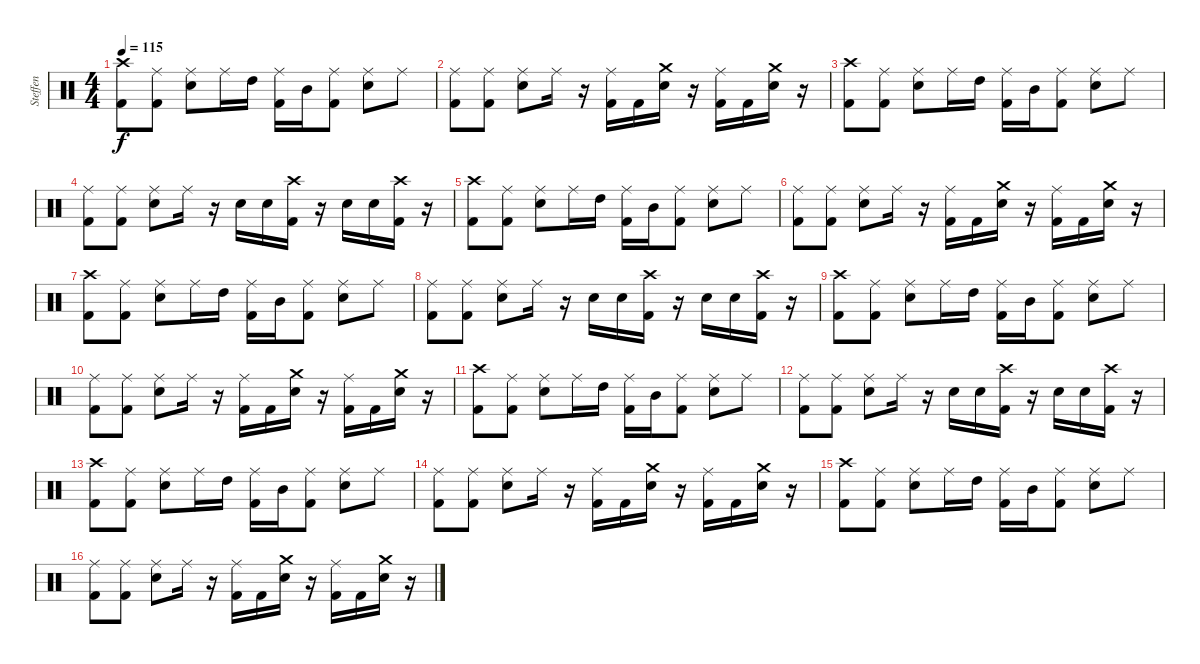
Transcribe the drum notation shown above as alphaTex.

\track ("Steffen" "Steffen") {instrument percussion}
\staff {score}
\articulation defaults
\ts (4 4)
\tempo 115
\clef neutral
\ks c
("Crash high (hit)" "Kick (hit) 2").8{dy f} ("Ride (middle)" "Kick (hit) 2").8 ("Ride (middle)" "Snare (hit) 2").8 "Ride (middle)".16 "High Tom (hit)".16 ("Ride (middle)" "Kick (hit) 2").16 "Mid Tom (hit)".16 ("Ride (middle)" "Kick (hit) 2").8 ("Ride (middle)" "Snare (hit) 2").8 "Ride (middle)".8 |
("Ride (middle)" "Kick (hit) 2").8 ("Ride (middle)" "Kick (hit) 2").8 ("Ride (middle)" "Snare (hit) 2").8 "Ride (middle)".16 r.16 ("Ride (middle)" "Kick (hit) 2").16 "Kick (hit) 2".16 ("Crash medium (hit)" "Snare (hit) 2").16 r.16 ("Ride (middle)" "Kick (hit) 2").16 "Kick (hit) 2".16 ("Crash medium (hit)" "Snare (hit) 2").16 r.16 |
("Crash high (hit)" "Kick (hit) 2").8 ("Ride (middle)" "Kick (hit) 2").8 ("Ride (middle)" "Snare (hit) 2").8 "Ride (middle)".16 "High Tom (hit)".16 ("Ride (middle)" "Kick (hit) 2").16 "Mid Tom (hit)".16 ("Ride (middle)" "Kick (hit) 2").8 ("Ride (middle)" "Snare (hit) 2").8 "Ride (middle)".8 |
("Ride (middle)" "Kick (hit) 2").8 ("Ride (middle)" "Kick (hit) 2").8 ("Ride (middle)" "Snare (hit) 2").8 "Ride (middle)".16 r.16 "Snare (hit) 2".16 "Snare (hit) 2".16 ("Crash high (hit)" "Kick (hit) 2").16 r.16 "Snare (hit) 2".16 "Snare (hit) 2".16 ("Crash high (hit)" "Kick (hit) 2").16 r.16 |
("Crash high (hit)" "Kick (hit) 2").8 ("Ride (middle)" "Kick (hit) 2").8 ("Ride (middle)" "Snare (hit) 2").8 "Ride (middle)".16 "High Tom (hit)".16 ("Ride (middle)" "Kick (hit) 2").16 "Mid Tom (hit)".16 ("Ride (middle)" "Kick (hit) 2").8 ("Ride (middle)" "Snare (hit) 2").8 "Ride (middle)".8 |
("Ride (middle)" "Kick (hit) 2").8 ("Ride (middle)" "Kick (hit) 2").8 ("Ride (middle)" "Snare (hit) 2").8 "Ride (middle)".16 r.16 ("Ride (middle)" "Kick (hit) 2").16 "Kick (hit) 2".16 ("Crash medium (hit)" "Snare (hit) 2").16 r.16 ("Ride (middle)" "Kick (hit) 2").16 "Kick (hit) 2".16 ("Crash medium (hit)" "Snare (hit) 2").16 r.16 |
("Crash high (hit)" "Kick (hit) 2").8 ("Ride (middle)" "Kick (hit) 2").8 ("Ride (middle)" "Snare (hit) 2").8 "Ride (middle)".16 "High Tom (hit)".16 ("Ride (middle)" "Kick (hit) 2").16 "Mid Tom (hit)".16 ("Ride (middle)" "Kick (hit) 2").8 ("Ride (middle)" "Snare (hit) 2").8 "Ride (middle)".8 |
("Ride (middle)" "Kick (hit) 2").8 ("Ride (middle)" "Kick (hit) 2").8 ("Ride (middle)" "Snare (hit) 2").8 "Ride (middle)".16 r.16 "Snare (hit) 2".16 "Snare (hit) 2".16 ("Crash high (hit)" "Kick (hit) 2").16 r.16 "Snare (hit) 2".16 "Snare (hit) 2".16 ("Crash high (hit)" "Kick (hit) 2").16 r.16 |
("Crash high (hit)" "Kick (hit) 2").8 ("Ride (middle)" "Kick (hit) 2").8 ("Ride (middle)" "Snare (hit) 2").8 "Ride (middle)".16 "High Tom (hit)".16 ("Ride (middle)" "Kick (hit) 2").16 "Mid Tom (hit)".16 ("Ride (middle)" "Kick (hit) 2").8 ("Ride (middle)" "Snare (hit) 2").8 "Ride (middle)".8 |
("Ride (middle)" "Kick (hit) 2").8 ("Ride (middle)" "Kick (hit) 2").8 ("Ride (middle)" "Snare (hit) 2").8 "Ride (middle)".16 r.16 ("Ride (middle)" "Kick (hit) 2").16 "Kick (hit) 2".16 ("Crash medium (hit)" "Snare (hit) 2").16 r.16 ("Ride (middle)" "Kick (hit) 2").16 "Kick (hit) 2".16 ("Crash medium (hit)" "Snare (hit) 2").16 r.16 |
("Crash high (hit)" "Kick (hit) 2").8 ("Ride (middle)" "Kick (hit) 2").8 ("Ride (middle)" "Snare (hit) 2").8 "Ride (middle)".16 "High Tom (hit)".16 ("Ride (middle)" "Kick (hit) 2").16 "Mid Tom (hit)".16 ("Ride (middle)" "Kick (hit) 2").8 ("Ride (middle)" "Snare (hit) 2").8 "Ride (middle)".8 |
("Ride (middle)" "Kick (hit) 2").8 ("Ride (middle)" "Kick (hit) 2").8 ("Ride (middle)" "Snare (hit) 2").8 "Ride (middle)".16 r.16 "Snare (hit) 2".16 "Snare (hit) 2".16 ("Crash high (hit)" "Kick (hit) 2").16 r.16 "Snare (hit) 2".16 "Snare (hit) 2".16 ("Crash high (hit)" "Kick (hit) 2").16 r.16 |
("Crash high (hit)" "Kick (hit) 2").8 ("Ride (middle)" "Kick (hit) 2").8 ("Ride (middle)" "Snare (hit) 2").8 "Ride (middle)".16 "High Tom (hit)".16 ("Ride (middle)" "Kick (hit) 2").16 "Mid Tom (hit)".16 ("Ride (middle)" "Kick (hit) 2").8 ("Ride (middle)" "Snare (hit) 2").8 "Ride (middle)".8 |
("Ride (middle)" "Kick (hit) 2").8 ("Ride (middle)" "Kick (hit) 2").8 ("Ride (middle)" "Snare (hit) 2").8 "Ride (middle)".16 r.16 ("Ride (middle)" "Kick (hit) 2").16 "Kick (hit) 2".16 ("Crash medium (hit)" "Snare (hit) 2").16 r.16 ("Ride (middle)" "Kick (hit) 2").16 "Kick (hit) 2".16 ("Crash medium (hit)" "Snare (hit) 2").16 r.16 |
("Crash high (hit)" "Kick (hit) 2").8 ("Ride (middle)" "Kick (hit) 2").8 ("Ride (middle)" "Snare (hit) 2").8 "Ride (middle)".16 "High Tom (hit)".16 ("Ride (middle)" "Kick (hit) 2").16 "Mid Tom (hit)".16 ("Ride (middle)" "Kick (hit) 2").8 ("Ride (middle)" "Snare (hit) 2").8 "Ride (middle)".8 |
("Ride (middle)" "Kick (hit) 2").8 ("Ride (middle)" "Kick (hit) 2").8 ("Ride (middle)" "Snare (hit) 2").8 "Ride (middle)".16 r.16 ("Ride (middle)" "Kick (hit) 2").16 "Kick (hit) 2".16 ("Crash medium (hit)" "Snare (hit) 2").16 r.16 ("Ride (middle)" "Kick (hit) 2").16 "Kick (hit) 2".16 ("Crash medium (hit)" "Snare (hit) 2").16 r.16
